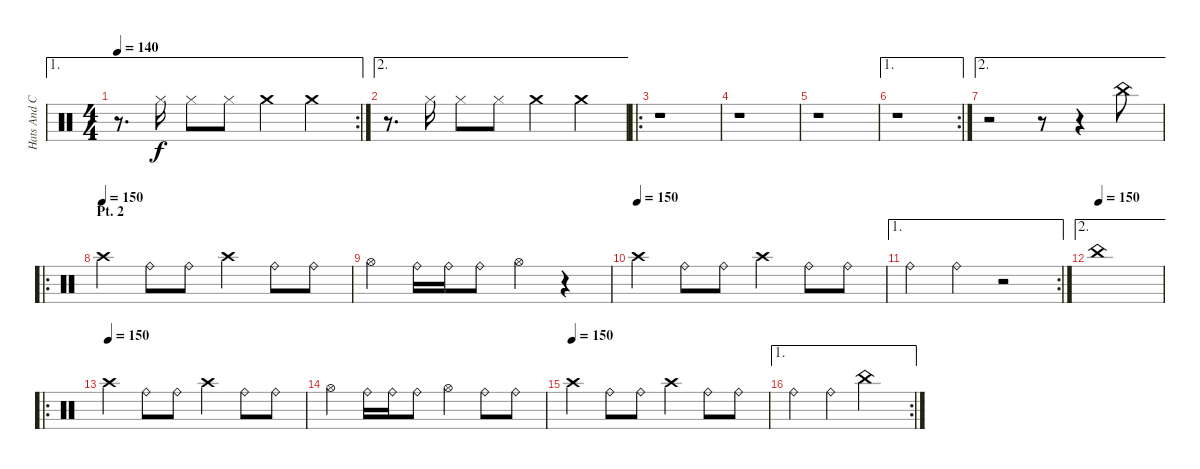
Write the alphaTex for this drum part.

\track ("Hats And Cymbals" "Hats And C") {instrument percussion}
\staff {score}
\articulation defaults
\ae 1
\rc 2
\ts (4 4)
\tempo 140
\clef neutral
\ks c
r.8{d dy f} "Hi-Hat (closed)".16 "Hi-Hat (closed)".8 "Hi-Hat (closed)".8 "Crash medium (hit)".4 "Crash medium (hit)".4 |
\ae 2
r.8{d} "Hi-Hat (closed)".16 "Hi-Hat (closed)".8 "Hi-Hat (closed)".8 "Crash medium (hit)".4 "Crash medium (hit)".4 |
\ro
r.1 |
r.1 |
r.1 |
\ae 1
\rc 2
r.1 |
\ae 2
r.2 r.8 r.4 "China (hit)".8 |
\ro
\section ("" "Pt. 2")
\tempo (150)
"Crash high (hit)".4 "Ride (bell)".8 "Ride (bell)".8 "Crash high (hit)".4 "Ride (bell)".8 "Ride (bell)".8 |
"Hi-Hat (open)".4 "Ride (bell)".16 "Ride (bell)".16 "Ride (bell)".8 "Hi-Hat (open)".4 r.4 |
\tempo (150)
"Crash high (hit)".4 "Ride (bell)".8 "Ride (bell)".8 "Crash high (hit)".4 "Ride (bell)".8 "Ride (bell)".8 |
\ae 1
\rc 2 "Ride (bell)".4 "Ride (bell)".4
r.2 |
\ae 2
\tempo (150)
"China (hit)".1 |
\ro
\tempo (150)
"Crash high (hit)".4 "Ride (bell)".8 "Ride (bell)".8 "Crash high (hit)".4 "Ride (bell)".8 "Ride (bell)".8 |
"Hi-Hat (open)".4 "Ride (bell)".16 "Ride (bell)".16 "Ride (bell)".8 "Hi-Hat (open)".4 "Ride (bell)".8 "Ride (bell)".8 |
\tempo (150)
"Crash high (hit)".4 "Ride (bell)".8 "Ride (bell)".8 "Crash high (hit)".4 "Ride (bell)".8 "Ride (bell)".8 |
\ae 1
\rc 2 "Ride (bell)".4 "Ride (bell)".4 "China (hit)".2
